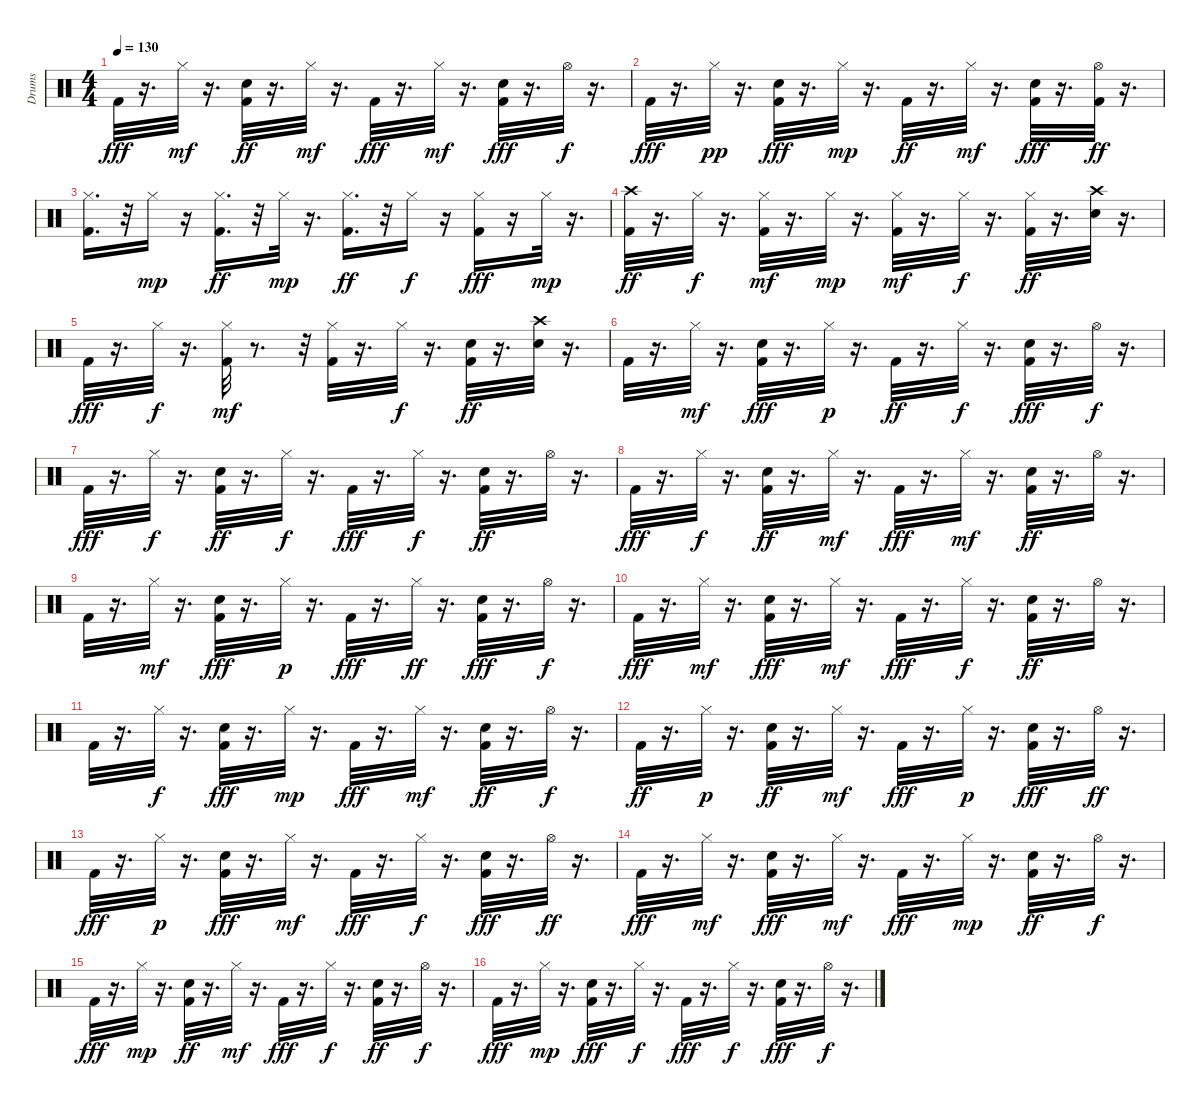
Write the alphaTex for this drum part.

\track ("Drums               " "Drums     ") {instrument percussion}
\staff {score}
\articulation defaults
\ts (4 4)
\tempo 130
\clef neutral
\ks c "Kick (hit) 2".32{dy fff}
r.16{d} "Hi-Hat (closed)".32{dy mf} r.16{d} ("Kick (hit) 2" "Snare (hit) 2").32{dy ff} r.16{d} "Hi-Hat (closed)".32{dy mf} r.16{d} "Kick (hit) 2".32{dy fff} r.16{d} "Hi-Hat (closed)".32{dy mf} r.16{d} ("Kick (hit) 2" "Snare (hit) 2").32{dy fff} r.16{d} "Hi-Hat (open)".32{dy f} r.16{d} |
"Kick (hit) 2".32{dy fff} r.16{d} "Hi-Hat (closed)".32{dy pp} r.16{d} ("Kick (hit) 2" "Snare (hit) 2").32{dy fff} r.16{d} "Hi-Hat (closed)".32{dy mp} r.16{d} "Kick (hit) 2".32{dy ff} r.16{d} "Hi-Hat (closed)".32{dy mf} r.16{d} ("Kick (hit) 2" "Snare (hit) 2").32{dy fff} r.16{d} ("Kick (hit) 2" "Hi-Hat (open)").32{dy ff} r.16{d} |
("Kick (hit) 2" "Hi-Hat (closed)").16{d} r.32 "Hi-Hat (closed)".16{dy mp} r.16 ("Kick (hit) 2" "Hi-Hat (closed)").16{d dy ff} r.32 "Hi-Hat (closed)".32{dy mp} r.16{d} ("Kick (hit) 2" "Hi-Hat (closed)").16{d dy ff} r.32 "Hi-Hat (closed)".16{dy f} r.16 ("Kick (hit) 2" "Hi-Hat (closed)").16{dy fff} r.16 "Hi-Hat (closed)".32{dy mp} r.16{d} |
("Kick (hit) 2" "Crash high (hit)").32{dy ff} r.16{d} "Hi-Hat (closed)".32{dy f} r.16{d} ("Kick (hit) 2" "Hi-Hat (closed)").32{dy mf} r.16{d} "Hi-Hat (closed)".32{dy mp} r.16{d} ("Kick (hit) 2" "Hi-Hat (closed)").32{dy mf} r.16{d} "Hi-Hat (closed)".32{dy f} r.16{d} ("Kick (hit) 2" "Hi-Hat (closed)").32{dy ff} r.16{d} ("Snare (hit) 2" "Crash high (hit)").32 r.16{d} |
"Kick (hit) 2".32{dy fff} r.16{d} "Hi-Hat (closed)".32{dy f} r.16{d} ("Kick (hit) 2" "Hi-Hat (closed)").32{dy mf} r.8{d} r.32 ("Kick (hit) 2" "Hi-Hat (closed)").32 r.16{d} "Hi-Hat (closed)".32{dy f} r.16{d} ("Kick (hit) 2" "Snare (hit) 2").32{dy ff} r.16{d} ("Snare (hit) 2" "Crash high (hit)").32 r.16{d} |
"Kick (hit) 2".32 r.16{d} "Hi-Hat (closed)".32{dy mf} r.16{d} ("Kick (hit) 2" "Snare (hit) 2").32{dy fff} r.16{d} "Hi-Hat (closed)".32{dy p} r.16{d} "Kick (hit) 2".32{dy ff} r.16{d} "Hi-Hat (closed)".32{dy f} r.16{d} ("Kick (hit) 2" "Snare (hit) 2").32{dy fff} r.16{d} "Hi-Hat (open)".32{dy f} r.16{d} |
"Kick (hit) 2".32{dy fff} r.16{d} "Hi-Hat (closed)".32{dy f} r.16{d} ("Kick (hit) 2" "Snare (hit) 2").32{dy ff} r.16{d} "Hi-Hat (closed)".32{dy f} r.16{d} "Kick (hit) 2".32{dy fff} r.16{d} "Hi-Hat (closed)".32{dy f} r.16{d} ("Kick (hit) 2" "Snare (hit) 2").32{dy ff} r.16{d} "Hi-Hat (open)".32 r.16{d} |
"Kick (hit) 2".32{dy fff} r.16{d} "Hi-Hat (closed)".32{dy f} r.16{d} ("Kick (hit) 2" "Snare (hit) 2").32{dy ff} r.16{d} "Hi-Hat (closed)".32{dy mf} r.16{d} "Kick (hit) 2".32{dy fff} r.16{d} "Hi-Hat (closed)".32{dy mf} r.16{d} ("Kick (hit) 2" "Snare (hit) 2").32{dy ff} r.16{d} "Hi-Hat (open)".32 r.16{d} |
"Kick (hit) 2".32 r.16{d} "Hi-Hat (closed)".32{dy mf} r.16{d} ("Kick (hit) 2" "Snare (hit) 2").32{dy fff} r.16{d} "Hi-Hat (closed)".32{dy p} r.16{d} "Kick (hit) 2".32{dy fff} r.16{d} "Hi-Hat (closed)".32{dy ff} r.16{d} ("Kick (hit) 2" "Snare (hit) 2").32{dy fff} r.16{d} "Hi-Hat (open)".32{dy f} r.16{d} |
"Kick (hit) 2".32{dy fff} r.16{d} "Hi-Hat (closed)".32{dy mf} r.16{d} ("Kick (hit) 2" "Snare (hit) 2").32{dy fff} r.16{d} "Hi-Hat (closed)".32{dy mf} r.16{d} "Kick (hit) 2".32{dy fff} r.16{d} "Hi-Hat (closed)".32{dy f} r.16{d} ("Kick (hit) 2" "Snare (hit) 2").32{dy ff} r.16{d} "Hi-Hat (open)".32 r.16{d} |
"Kick (hit) 2".32 r.16{d} "Hi-Hat (closed)".32{dy f} r.16{d} ("Kick (hit) 2" "Snare (hit) 2").32{dy fff} r.16{d} "Hi-Hat (closed)".32{dy mp} r.16{d} "Kick (hit) 2".32{dy fff} r.16{d} "Hi-Hat (closed)".32{dy mf} r.16{d} ("Kick (hit) 2" "Snare (hit) 2").32{dy ff} r.16{d} "Hi-Hat (open)".32{dy f} r.16{d} |
"Kick (hit) 2".32{dy ff} r.16{d} "Hi-Hat (closed)".32{dy p} r.16{d} ("Kick (hit) 2" "Snare (hit) 2").32{dy ff} r.16{d} "Hi-Hat (closed)".32{dy mf} r.16{d} "Kick (hit) 2".32{dy fff} r.16{d} "Hi-Hat (closed)".32{dy p} r.16{d} ("Kick (hit) 2" "Snare (hit) 2").32{dy fff} r.16{d} "Hi-Hat (open)".32{dy ff} r.16{d} |
"Kick (hit) 2".32{dy fff} r.16{d} "Hi-Hat (closed)".32{dy p} r.16{d} ("Kick (hit) 2" "Snare (hit) 2").32{dy fff} r.16{d} "Hi-Hat (closed)".32{dy mf} r.16{d} "Kick (hit) 2".32{dy fff} r.16{d} "Hi-Hat (closed)".32{dy f} r.16{d} ("Kick (hit) 2" "Snare (hit) 2").32{dy fff} r.16{d} "Hi-Hat (open)".32{dy ff} r.16{d} |
"Kick (hit) 2".32{dy fff} r.16{d} "Hi-Hat (closed)".32{dy mf} r.16{d} ("Kick (hit) 2" "Snare (hit) 2").32{dy fff} r.16{d} "Hi-Hat (closed)".32{dy mf} r.16{d} "Kick (hit) 2".32{dy fff} r.16{d} "Hi-Hat (closed)".32{dy mp} r.16{d} ("Kick (hit) 2" "Snare (hit) 2").32{dy ff} r.16{d} "Hi-Hat (open)".32{dy f} r.16{d} |
"Kick (hit) 2".32{dy fff} r.16{d} "Hi-Hat (closed)".32{dy mp} r.16{d} ("Kick (hit) 2" "Snare (hit) 2").32{dy ff} r.16{d} "Hi-Hat (closed)".32{dy mf} r.16{d} "Kick (hit) 2".32{dy fff} r.16{d} "Hi-Hat (closed)".32{dy f} r.16{d} ("Kick (hit) 2" "Snare (hit) 2").32{dy ff} r.16{d} "Hi-Hat (open)".32{dy f} r.16{d} |
"Kick (hit) 2".32{dy fff} r.16{d} "Hi-Hat (closed)".32{dy mp} r.16{d} ("Kick (hit) 2" "Snare (hit) 2").32{dy fff} r.16{d} "Hi-Hat (closed)".32{dy f} r.16{d} "Kick (hit) 2".32{dy fff} r.16{d} "Hi-Hat (closed)".32{dy f} r.16{d} ("Kick (hit) 2" "Snare (hit) 2").32{dy fff} r.16{d} "Hi-Hat (open)".32{dy f} r.16{d}
